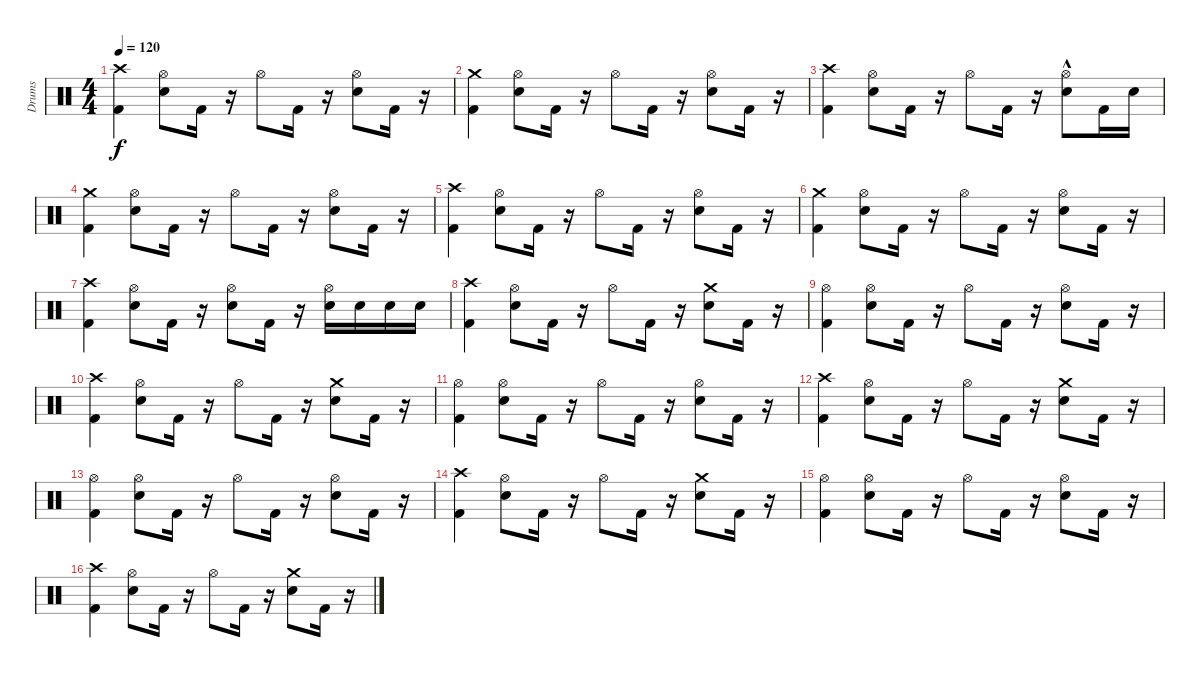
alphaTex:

\track ("Drums" "Drums") {instrument percussion}
\staff {score}
\articulation defaults
\ts (4 4)
\tempo 120
\clef neutral
\ks c
("Crash high (hit)" "Kick (hit) 2").4{dy f} ("Hi-Hat (open)" "Electric Snare (hit)").8 "Kick (hit) 2".16 r.16 "Hi-Hat (open)".8 "Kick (hit) 2".16 r.16 ("Hi-Hat (open)" "Electric Snare (hit)").8 "Kick (hit) 2".16 r.16 |
("Crash medium (hit)" "Kick (hit) 2").4 ("Hi-Hat (open)" "Electric Snare (hit)").8 "Kick (hit) 2".16 r.16 "Hi-Hat (open)".8 "Kick (hit) 2".16 r.16 ("Hi-Hat (open)" "Electric Snare (hit)").8 "Kick (hit) 2".16 r.16 |
("Crash high (hit)" "Kick (hit) 2").4 ("Hi-Hat (open)" "Electric Snare (hit)").8 "Kick (hit) 2".16 r.16 "Hi-Hat (open)".8 "Kick (hit) 2".16 r.16 ("Electric Snare (hit)"{hac} "Hi-Hat (open)").8 "Kick (hit) 2".16 "Electric Snare (hit)".16 |
("Kick (hit) 2" "Crash medium (hit)").4 ("Electric Snare (hit)" "Hi-Hat (open)").8 "Kick (hit) 2".16 r.16 "Hi-Hat (open)".8 "Kick (hit) 2".16 r.16 ("Electric Snare (hit)" "Hi-Hat (open)").8 "Kick (hit) 2".16 r.16 |
("Crash high (hit)" "Kick (hit) 2").4 ("Electric Snare (hit)" "Hi-Hat (open)").8 "Kick (hit) 2".16 r.16 "Hi-Hat (open)".8 "Kick (hit) 2".16 r.16 ("Electric Snare (hit)" "Hi-Hat (open)").8 "Kick (hit) 2".16 r.16 |
("Kick (hit) 2" "Crash medium (hit)").4 ("Electric Snare (hit)" "Hi-Hat (open)").8 "Kick (hit) 2".16 r.16 "Hi-Hat (open)".8 "Kick (hit) 2".16 r.16 ("Electric Snare (hit)" "Hi-Hat (open)").8 "Kick (hit) 2".16 r.16 |
("Crash high (hit)" "Kick (hit) 2").4 ("Electric Snare (hit)" "Hi-Hat (open)").8 "Kick (hit) 2".16 r.16 ("Electric Snare (hit)" "Hi-Hat (open)").8 "Kick (hit) 2".16 r.16 ("Electric Snare (hit)" "Hi-Hat (open)").16 "Electric Snare (hit)".16 "Electric Snare (hit)".16 "Electric Snare (hit)".16 |
("Kick (hit) 2" "Crash high (hit)").4 ("Electric Snare (hit)" "Hi-Hat (open)").8 "Kick (hit) 2".16 r.16 "Hi-Hat (open)".8 "Kick (hit) 2".16 r.16 ("Electric Snare (hit)" "Crash medium (hit)").8 "Kick (hit) 2".16 r.16 |
("Hi-Hat (open)" "Kick (hit) 2").4 ("Hi-Hat (open)" "Electric Snare (hit)").8 "Kick (hit) 2".16 r.16 "Hi-Hat (open)".8 "Kick (hit) 2".16 r.16 ("Hi-Hat (open)" "Electric Snare (hit)").8 "Kick (hit) 2".16 r.16 |
("Crash high (hit)" "Kick (hit) 2").4 ("Hi-Hat (open)" "Electric Snare (hit)").8 "Kick (hit) 2".16 r.16 "Hi-Hat (open)".8 "Kick (hit) 2".16 r.16 ("Crash medium (hit)" "Electric Snare (hit)").8 "Kick (hit) 2".16 r.16 |
("Hi-Hat (open)" "Kick (hit) 2").4 ("Electric Snare (hit)" "Hi-Hat (open)").8 "Kick (hit) 2".16 r.16 "Hi-Hat (open)".8 "Kick (hit) 2".16 r.16 ("Electric Snare (hit)" "Hi-Hat (open)").8 "Kick (hit) 2".16 r.16 |
("Crash high (hit)" "Kick (hit) 2").4 ("Hi-Hat (open)" "Electric Snare (hit)").8 "Kick (hit) 2".16 r.16 "Hi-Hat (open)".8 "Kick (hit) 2".16 r.16 ("Crash medium (hit)" "Electric Snare (hit)").8 "Kick (hit) 2".16 r.16 |
("Hi-Hat (open)" "Kick (hit) 2").4 ("Hi-Hat (open)" "Electric Snare (hit)").8 "Kick (hit) 2".16 r.16 "Hi-Hat (open)".8 "Kick (hit) 2".16 r.16 ("Hi-Hat (open)" "Electric Snare (hit)").8 "Kick (hit) 2".16 r.16 |
("Crash high (hit)" "Kick (hit) 2").4 ("Hi-Hat (open)" "Electric Snare (hit)").8 "Kick (hit) 2".16 r.16 "Hi-Hat (open)".8 "Kick (hit) 2".16 r.16 ("Crash medium (hit)" "Electric Snare (hit)").8 "Kick (hit) 2".16 r.16 |
("Hi-Hat (open)" "Kick (hit) 2").4 ("Hi-Hat (open)" "Electric Snare (hit)").8 "Kick (hit) 2".16 r.16 "Hi-Hat (open)".8 "Kick (hit) 2".16 r.16 ("Hi-Hat (open)" "Electric Snare (hit)").8 "Kick (hit) 2".16 r.16 |
("Crash high (hit)" "Kick (hit) 2").4 ("Hi-Hat (open)" "Electric Snare (hit)").8 "Kick (hit) 2".16 r.16 "Hi-Hat (open)".8 "Kick (hit) 2".16 r.16 ("Crash medium (hit)" "Electric Snare (hit)").8 "Kick (hit) 2".16 r.16
